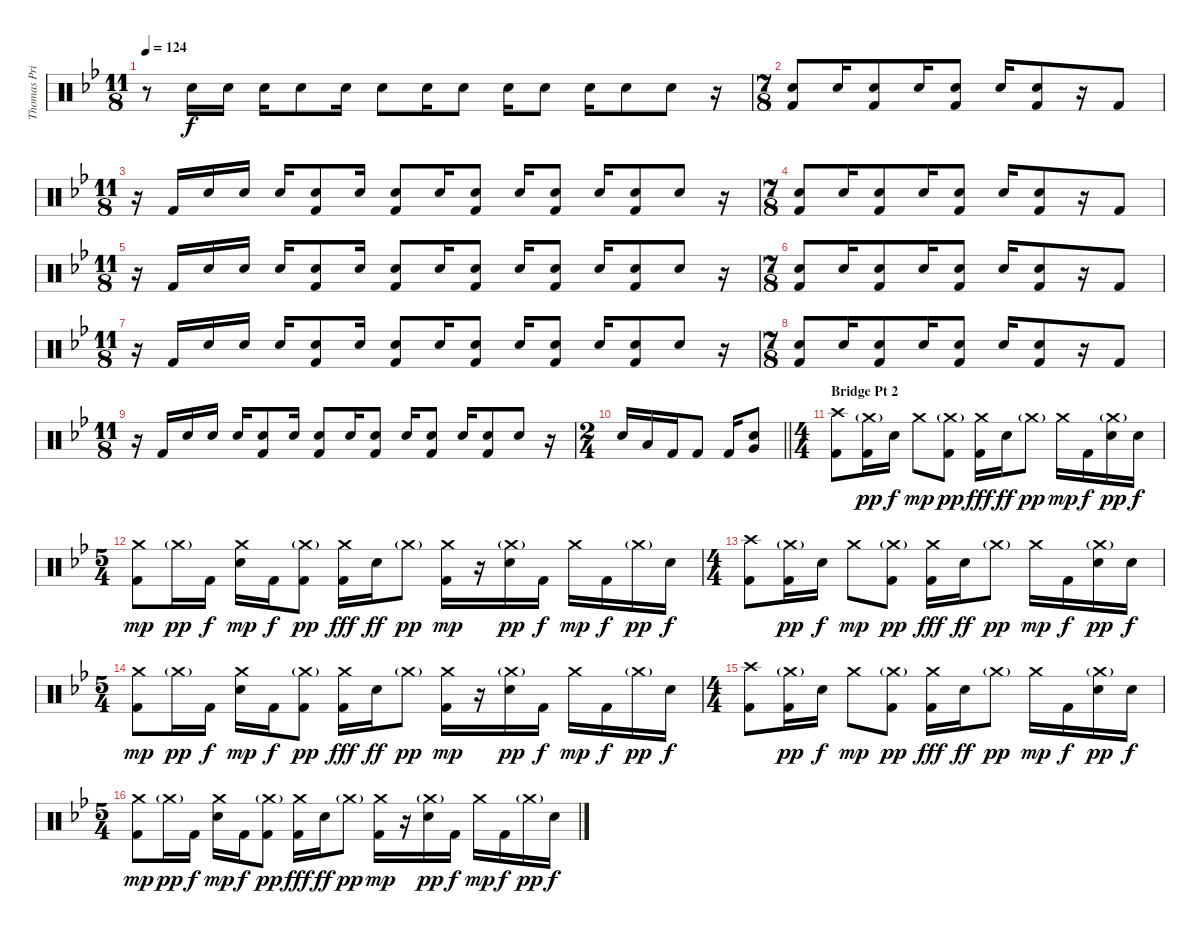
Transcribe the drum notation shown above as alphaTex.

\track ("Thomas Pridgen" "Thomas Pri") {instrument percussion}
\staff {score}
\articulation defaults
\ts (11 8)
\tempo 124
\clef neutral
\ks gminor
r.8{dy f} "Electric Snare (hit)".16 "Electric Snare (hit)".16 "Electric Snare (hit)".16 "Electric Snare (hit)".8 "Electric Snare (hit)".16 "Electric Snare (hit)".8 "Electric Snare (hit)".16 "Electric Snare (hit)".8 "Electric Snare (hit)".16 "Electric Snare (hit)".8 "Electric Snare (hit)".16 "Electric Snare (hit)".8 "Electric Snare (hit)".8 r.16 |
\ts (7 8)
("Electric Snare (hit)" "Kick (hit) 2").8 "Electric Snare (hit)".16 ("Electric Snare (hit)" "Kick (hit) 2").8 "Electric Snare (hit)".16 ("Electric Snare (hit)" "Kick (hit) 2").8 "Electric Snare (hit)".16 ("Electric Snare (hit)" "Kick (hit) 2").8 r.16 "Kick (hit) 2".8 |
\ts (11 8)
r.16 "Kick (hit) 2".16 "Electric Snare (hit)".16 "Electric Snare (hit)".16 "Electric Snare (hit)".16 ("Electric Snare (hit)" "Kick (hit) 2").8 "Electric Snare (hit)".16 ("Electric Snare (hit)" "Kick (hit) 2").8 "Electric Snare (hit)".16 ("Electric Snare (hit)" "Kick (hit) 2").8 "Electric Snare (hit)".16 ("Electric Snare (hit)" "Kick (hit) 2").8 "Electric Snare (hit)".16 ("Electric Snare (hit)" "Kick (hit) 2").8 "Electric Snare (hit)".8 r.16 |
\ts (7 8)
("Electric Snare (hit)" "Kick (hit) 2").8 "Electric Snare (hit)".16 ("Electric Snare (hit)" "Kick (hit) 2").8 "Electric Snare (hit)".16 ("Electric Snare (hit)" "Kick (hit) 2").8 "Electric Snare (hit)".16 ("Electric Snare (hit)" "Kick (hit) 2").8 r.16 "Kick (hit) 2".8 |
\ts (11 8)
r.16 "Kick (hit) 2".16 "Electric Snare (hit)".16 "Electric Snare (hit)".16 "Electric Snare (hit)".16 ("Electric Snare (hit)" "Kick (hit) 2").8 "Electric Snare (hit)".16 ("Electric Snare (hit)" "Kick (hit) 2").8 "Electric Snare (hit)".16 ("Electric Snare (hit)" "Kick (hit) 2").8 "Electric Snare (hit)".16 ("Electric Snare (hit)" "Kick (hit) 2").8 "Electric Snare (hit)".16 ("Electric Snare (hit)" "Kick (hit) 2").8 "Electric Snare (hit)".8 r.16 |
\ts (7 8)
("Electric Snare (hit)" "Kick (hit) 2").8 "Electric Snare (hit)".16 ("Electric Snare (hit)" "Kick (hit) 2").8 "Electric Snare (hit)".16 ("Electric Snare (hit)" "Kick (hit) 2").8 "Electric Snare (hit)".16 ("Electric Snare (hit)" "Kick (hit) 2").8 r.16 "Kick (hit) 2".8 |
\ts (11 8)
r.16 "Kick (hit) 2".16 "Electric Snare (hit)".16 "Electric Snare (hit)".16 "Electric Snare (hit)".16 ("Electric Snare (hit)" "Kick (hit) 2").8 "Electric Snare (hit)".16 ("Electric Snare (hit)" "Kick (hit) 2").8 "Electric Snare (hit)".16 ("Electric Snare (hit)" "Kick (hit) 2").8 "Electric Snare (hit)".16 ("Electric Snare (hit)" "Kick (hit) 2").8 "Electric Snare (hit)".16 ("Electric Snare (hit)" "Kick (hit) 2").8 "Electric Snare (hit)".8 r.16 |
\ts (7 8)
("Electric Snare (hit)" "Kick (hit) 2").8 "Electric Snare (hit)".16 ("Electric Snare (hit)" "Kick (hit) 2").8 "Electric Snare (hit)".16 ("Electric Snare (hit)" "Kick (hit) 2").8 "Electric Snare (hit)".16 ("Electric Snare (hit)" "Kick (hit) 2").8 r.16 "Kick (hit) 2".8 |
\ts (11 8)
r.16 "Kick (hit) 2".16 "Electric Snare (hit)".16 "Electric Snare (hit)".16 "Electric Snare (hit)".16 ("Electric Snare (hit)" "Kick (hit) 2").8 "Electric Snare (hit)".16 ("Electric Snare (hit)" "Kick (hit) 2").8 "Electric Snare (hit)".16 ("Electric Snare (hit)" "Kick (hit) 2").8 "Electric Snare (hit)".16 ("Electric Snare (hit)" "Kick (hit) 2").8 "Electric Snare (hit)".16 ("Electric Snare (hit)" "Kick (hit) 2").8 "Electric Snare (hit)".8 r.16 |
\ts (2 4)
\barLineRight lightlight "Electric Snare (hit)".16 "Low Tom (hit)".16 "Kick (hit) 2".16 "Kick (hit) 2".8 "Kick (hit) 2".16
("Electric Snare (hit)" "Very Low Tom (hit)").8 |
\ts (4 4)
\section ("" "Bridge Pt 2")
("Crash high (hit)" "Kick (hit) 2").8 ("Crash medium (hit)"{g} "Kick (hit) 2").16{dy pp} "Electric Snare (hit)".16{dy f} "Crash medium (hit)".8{dy mp} ("Crash medium (hit)"{g} "Kick (hit) 2").8{dy pp} ("Crash medium (hit)" "Kick (hit) 2").16{dy fff} "Electric Snare (hit)".16{dy ff} "Crash medium (hit)"{g}.8{dy pp} "Crash medium (hit)".16{dy mp} "Kick (hit) 2".16{dy f} ("Crash medium (hit)"{g} "Electric Snare (hit)").16{dy pp} "Electric Snare (hit)".16{dy f} |
\ts (5 4)
("Crash medium (hit)" "Kick (hit) 2").8{dy mp} "Crash medium (hit)"{g}.16{dy pp} "Kick (hit) 2".16{dy f} ("Crash medium (hit)" "Electric Snare (hit)").16{dy mp} "Kick (hit) 2".16{dy f} ("Crash medium (hit)"{g} "Kick (hit) 2").8{dy pp} ("Crash medium (hit)" "Kick (hit) 2").16{dy fff} "Electric Snare (hit)".16{dy ff} "Crash medium (hit)"{g}.8{dy pp} ("Crash medium (hit)" "Kick (hit) 2").16{dy mp} r.16 ("Crash medium (hit)"{g} "Electric Snare (hit)").16{dy pp} "Kick (hit) 2".16{dy f} "Crash medium (hit)".16{dy mp} "Kick (hit) 2".16{dy f} "Crash medium (hit)"{g}.16{dy pp} "Electric Snare (hit)".16{dy f} |
\ts (4 4)
("Crash high (hit)" "Kick (hit) 2").8 ("Crash medium (hit)"{g} "Kick (hit) 2").16{dy pp} "Electric Snare (hit)".16{dy f} "Crash medium (hit)".8{dy mp} ("Crash medium (hit)"{g} "Kick (hit) 2").8{dy pp} ("Crash medium (hit)" "Kick (hit) 2").16{dy fff} "Electric Snare (hit)".16{dy ff} "Crash medium (hit)"{g}.8{dy pp} "Crash medium (hit)".16{dy mp} "Kick (hit) 2".16{dy f} ("Crash medium (hit)"{g} "Electric Snare (hit)").16{dy pp} "Electric Snare (hit)".16{dy f} |
\ts (5 4)
("Crash medium (hit)" "Kick (hit) 2").8{dy mp} "Crash medium (hit)"{g}.16{dy pp} "Kick (hit) 2".16{dy f} ("Crash medium (hit)" "Electric Snare (hit)").16{dy mp} "Kick (hit) 2".16{dy f} ("Crash medium (hit)"{g} "Kick (hit) 2").8{dy pp} ("Crash medium (hit)" "Kick (hit) 2").16{dy fff} "Electric Snare (hit)".16{dy ff} "Crash medium (hit)"{g}.8{dy pp} ("Crash medium (hit)" "Kick (hit) 2").16{dy mp} r.16 ("Crash medium (hit)"{g} "Electric Snare (hit)").16{dy pp} "Kick (hit) 2".16{dy f} "Crash medium (hit)".16{dy mp} "Kick (hit) 2".16{dy f} "Crash medium (hit)"{g}.16{dy pp} "Electric Snare (hit)".16{dy f} |
\ts (4 4)
("Crash high (hit)" "Kick (hit) 2").8 ("Crash medium (hit)"{g} "Kick (hit) 2").16{dy pp} "Electric Snare (hit)".16{dy f} "Crash medium (hit)".8{dy mp} ("Crash medium (hit)"{g} "Kick (hit) 2").8{dy pp} ("Crash medium (hit)" "Kick (hit) 2").16{dy fff} "Electric Snare (hit)".16{dy ff} "Crash medium (hit)"{g}.8{dy pp} "Crash medium (hit)".16{dy mp} "Kick (hit) 2".16{dy f} ("Crash medium (hit)"{g} "Electric Snare (hit)").16{dy pp} "Electric Snare (hit)".16{dy f} |
\ts (5 4)
("Crash medium (hit)" "Kick (hit) 2").8{dy mp} "Crash medium (hit)"{g}.16{dy pp} "Kick (hit) 2".16{dy f} ("Crash medium (hit)" "Electric Snare (hit)").16{dy mp} "Kick (hit) 2".16{dy f} ("Crash medium (hit)"{g} "Kick (hit) 2").8{dy pp} ("Crash medium (hit)" "Kick (hit) 2").16{dy fff} "Electric Snare (hit)".16{dy ff} "Crash medium (hit)"{g}.8{dy pp} ("Crash medium (hit)" "Kick (hit) 2").16{dy mp} r.16 ("Crash medium (hit)"{g} "Electric Snare (hit)").16{dy pp} "Kick (hit) 2".16{dy f} "Crash medium (hit)".16{dy mp} "Kick (hit) 2".16{dy f} "Crash medium (hit)"{g}.16{dy pp} "Electric Snare (hit)".16{dy f}
